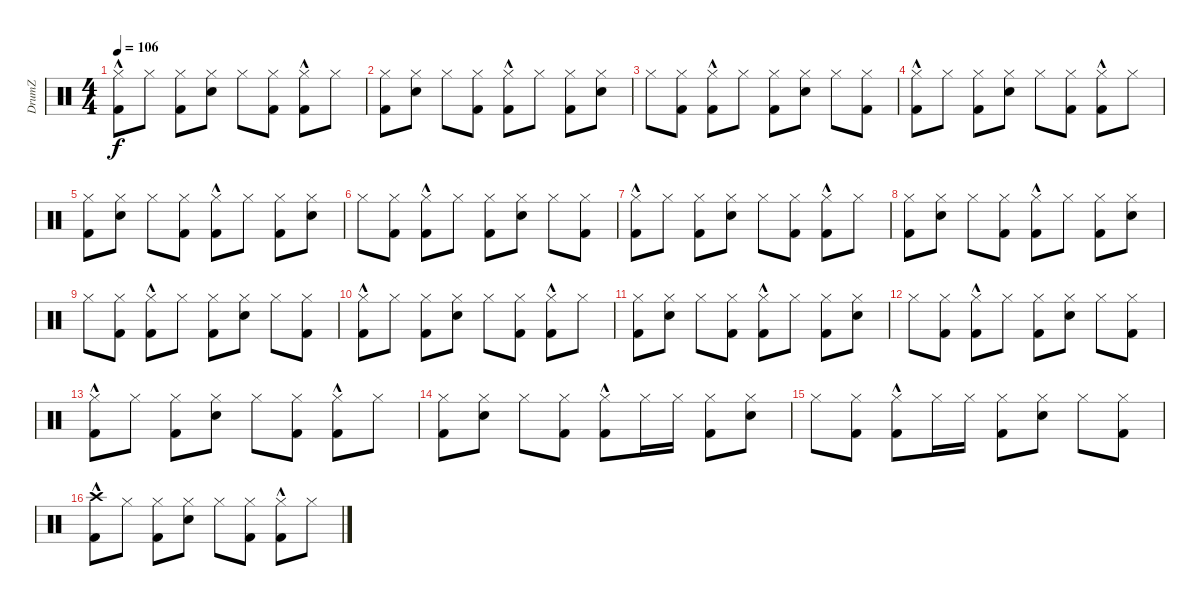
\track ("DrumZ" "DrumZ") {instrument percussion}
\staff {score}
\articulation defaults
\ts (4 4)
\tempo 106
\clef neutral
\ks c
("Hi-Hat (closed)" "Kick (hit) 2"{hac}).8{dy f} "Hi-Hat (closed)".8 ("Hi-Hat (closed)" "Kick (hit) 2").8 ("Hi-Hat (closed)" "Snare (hit) 2").8 "Hi-Hat (closed)".8 ("Hi-Hat (closed)" "Kick (hit) 2").8 ("Hi-Hat (closed)" "Kick (hit) 2"{hac}).8 "Hi-Hat (closed)".8 |
("Hi-Hat (closed)" "Kick (hit) 2").8 ("Hi-Hat (closed)" "Snare (hit) 2").8 "Hi-Hat (closed)".8 ("Hi-Hat (closed)" "Kick (hit) 2").8 ("Hi-Hat (closed)" "Kick (hit) 2"{hac}).8 "Hi-Hat (closed)".8 ("Hi-Hat (closed)" "Kick (hit) 2").8 ("Hi-Hat (closed)" "Snare (hit) 2").8 |
"Hi-Hat (closed)".8 ("Hi-Hat (closed)" "Kick (hit) 2").8 ("Hi-Hat (closed)" "Kick (hit) 2"{hac}).8 "Hi-Hat (closed)".8 ("Hi-Hat (closed)" "Kick (hit) 2").8 ("Hi-Hat (closed)" "Snare (hit) 2").8 "Hi-Hat (closed)".8 ("Hi-Hat (closed)" "Kick (hit) 2").8 |
("Hi-Hat (closed)" "Kick (hit) 2"{hac}).8 "Hi-Hat (closed)".8 ("Hi-Hat (closed)" "Kick (hit) 2").8 ("Hi-Hat (closed)" "Snare (hit) 2").8 "Hi-Hat (closed)".8 ("Hi-Hat (closed)" "Kick (hit) 2").8 ("Hi-Hat (closed)" "Kick (hit) 2"{hac}).8 "Hi-Hat (closed)".8 |
("Hi-Hat (closed)" "Kick (hit) 2").8 ("Hi-Hat (closed)" "Snare (hit) 2").8 "Hi-Hat (closed)".8 ("Hi-Hat (closed)" "Kick (hit) 2").8 ("Hi-Hat (closed)" "Kick (hit) 2"{hac}).8 "Hi-Hat (closed)".8 ("Hi-Hat (closed)" "Kick (hit) 2").8 ("Hi-Hat (closed)" "Snare (hit) 2").8 |
"Hi-Hat (closed)".8 ("Hi-Hat (closed)" "Kick (hit) 2").8 ("Hi-Hat (closed)" "Kick (hit) 2"{hac}).8 "Hi-Hat (closed)".8 ("Hi-Hat (closed)" "Kick (hit) 2").8 ("Hi-Hat (closed)" "Snare (hit) 2").8 "Hi-Hat (closed)".8 ("Hi-Hat (closed)" "Kick (hit) 2").8 |
("Hi-Hat (closed)" "Kick (hit) 2"{hac}).8 "Hi-Hat (closed)".8 ("Hi-Hat (closed)" "Kick (hit) 2").8 ("Hi-Hat (closed)" "Snare (hit) 2").8 "Hi-Hat (closed)".8 ("Hi-Hat (closed)" "Kick (hit) 2").8 ("Hi-Hat (closed)" "Kick (hit) 2"{hac}).8 "Hi-Hat (closed)".8 |
("Hi-Hat (closed)" "Kick (hit) 2").8 ("Hi-Hat (closed)" "Snare (hit) 2").8 "Hi-Hat (closed)".8 ("Hi-Hat (closed)" "Kick (hit) 2").8 ("Hi-Hat (closed)" "Kick (hit) 2"{hac}).8 "Hi-Hat (closed)".8 ("Hi-Hat (closed)" "Kick (hit) 2").8 ("Hi-Hat (closed)" "Snare (hit) 2").8 |
"Hi-Hat (closed)".8 ("Hi-Hat (closed)" "Kick (hit) 2").8 ("Hi-Hat (closed)" "Kick (hit) 2"{hac}).8 "Hi-Hat (closed)".8 ("Hi-Hat (closed)" "Kick (hit) 2").8 ("Hi-Hat (closed)" "Snare (hit) 2").8 "Hi-Hat (closed)".8 ("Hi-Hat (closed)" "Kick (hit) 2").8 |
("Hi-Hat (closed)" "Kick (hit) 2"{hac}).8 "Hi-Hat (closed)".8 ("Hi-Hat (closed)" "Kick (hit) 2").8 ("Hi-Hat (closed)" "Snare (hit) 2").8 "Hi-Hat (closed)".8 ("Hi-Hat (closed)" "Kick (hit) 2").8 ("Hi-Hat (closed)" "Kick (hit) 2"{hac}).8 "Hi-Hat (closed)".8 |
("Hi-Hat (closed)" "Kick (hit) 2").8 ("Hi-Hat (closed)" "Snare (hit) 2").8 "Hi-Hat (closed)".8 ("Hi-Hat (closed)" "Kick (hit) 2").8 ("Hi-Hat (closed)" "Kick (hit) 2"{hac}).8 "Hi-Hat (closed)".8 ("Hi-Hat (closed)" "Kick (hit) 2").8 ("Hi-Hat (closed)" "Snare (hit) 2").8 |
"Hi-Hat (closed)".8 ("Hi-Hat (closed)" "Kick (hit) 2").8 ("Hi-Hat (closed)" "Kick (hit) 2"{hac}).8 "Hi-Hat (closed)".8 ("Hi-Hat (closed)" "Kick (hit) 2").8 ("Hi-Hat (closed)" "Snare (hit) 2").8 "Hi-Hat (closed)".8 ("Hi-Hat (closed)" "Kick (hit) 2").8 |
("Hi-Hat (closed)" "Kick (hit) 2"{hac}).8 "Hi-Hat (closed)".8 ("Hi-Hat (closed)" "Kick (hit) 2").8 ("Hi-Hat (closed)" "Snare (hit) 2").8 "Hi-Hat (closed)".8 ("Hi-Hat (closed)" "Kick (hit) 2").8 ("Hi-Hat (closed)" "Kick (hit) 2"{hac}).8 "Hi-Hat (closed)".8 |
("Hi-Hat (closed)" "Kick (hit) 2").8 ("Hi-Hat (closed)" "Snare (hit) 2").8 "Hi-Hat (closed)".8 ("Hi-Hat (closed)" "Kick (hit) 2").8 ("Hi-Hat (closed)" "Kick (hit) 2"{hac}).8 "Hi-Hat (closed)".16 "Hi-Hat (closed)".16 ("Hi-Hat (closed)" "Kick (hit) 2").8 ("Hi-Hat (closed)" "Snare (hit) 2").8 |
"Hi-Hat (closed)".8 ("Hi-Hat (closed)" "Kick (hit) 2").8 ("Hi-Hat (closed)" "Kick (hit) 2"{hac}).8 "Hi-Hat (closed)".16 "Hi-Hat (closed)".16 ("Hi-Hat (closed)" "Kick (hit) 2").8 ("Hi-Hat (closed)" "Snare (hit) 2").8 "Hi-Hat (closed)".8 ("Hi-Hat (closed)" "Kick (hit) 2").8 |
("Kick (hit) 2"{hac} "Crash high (hit)").8 "Hi-Hat (closed)".8 ("Hi-Hat (closed)" "Kick (hit) 2").8 ("Hi-Hat (closed)" "Electric Snare (hit)").8 "Hi-Hat (closed)".8 ("Hi-Hat (closed)" "Kick (hit) 2").8 ("Hi-Hat (closed)" "Kick (hit) 2"{hac}).8 "Hi-Hat (closed)".8
